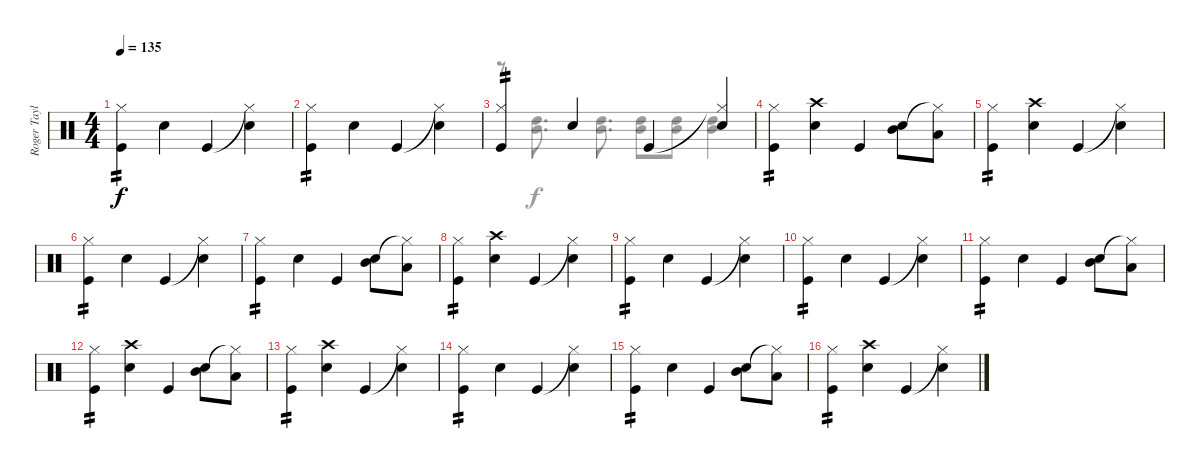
\track ("Roger Taylor" "Roger Tayl") {instrument percussion}
\staff {score}
\articulation defaults
\voice
\ts (4 4)
\tempo 135
\clef neutral
\ks c
("Hi-Hat (closed)" "Kick (hit)").4{tp 2 dy f} "Snare (hit) 2".4 "Kick (hit)".4 ("Hi-Hat (closed)"{t} "Snare (hit) 2").4 |
("Hi-Hat (closed)" "Kick (hit)").4{tp 2} "Snare (hit) 2".4 "Kick (hit)".4 ("Hi-Hat (closed)"{t} "Snare (hit) 2").4 |
("Hi-Hat (closed)" "Kick (hit)").4{tp 2} "Snare (hit) 2".4 "Kick (hit)".4 ("Hi-Hat (closed)"{t} "Snare (hit) 2").4 |
("Hi-Hat (closed)" "Kick (hit)").4{tp 2} ("Crash high (hit)" "Snare (hit) 2").4 "Kick (hit)".4 ("Mid Tom (hit)" "Snare (hit) 2").8 ("Hi-Hat (closed)"{t} "Low Tom (hit)").8 |
("Hi-Hat (closed)" "Kick (hit)").4{tp 2} ("Crash high (hit)" "Snare (hit) 2").4 "Kick (hit)".4 ("Hi-Hat (closed)"{t} "Snare (hit) 2").4 |
("Hi-Hat (closed)" "Kick (hit)").4{tp 2} "Snare (hit) 2".4 "Kick (hit)".4 ("Hi-Hat (closed)"{t} "Snare (hit) 2").4 |
("Hi-Hat (closed)" "Kick (hit)").4{tp 2} "Snare (hit) 2".4 "Kick (hit)".4 ("Mid Tom (hit)" "Snare (hit) 2").8 ("Hi-Hat (closed)"{t} "Low Tom (hit)").8 |
("Hi-Hat (closed)" "Kick (hit)").4{tp 2} ("Crash high (hit)" "Snare (hit) 2").4 "Kick (hit)".4 ("Hi-Hat (closed)"{t} "Snare (hit) 2").4 |
("Hi-Hat (closed)" "Kick (hit)").4{tp 2} "Snare (hit) 2".4 "Kick (hit)".4 ("Hi-Hat (closed)"{t} "Snare (hit) 2").4 |
("Hi-Hat (closed)" "Kick (hit)").4{tp 2} "Snare (hit) 2".4 "Kick (hit)".4 ("Hi-Hat (closed)"{t} "Snare (hit) 2").4 |
("Hi-Hat (closed)" "Kick (hit)").4{tp 2} "Snare (hit) 2".4 "Kick (hit)".4 ("Mid Tom (hit)" "Snare (hit) 2").8 ("Hi-Hat (closed)"{t} "Low Tom (hit)").8 |
("Hi-Hat (closed)" "Kick (hit)").4{tp 2} ("Crash high (hit)" "Snare (hit) 2").4 "Kick (hit)".4 ("Mid Tom (hit)" "Snare (hit) 2").8 ("Hi-Hat (closed)"{t} "Low Tom (hit)").8 |
("Hi-Hat (closed)" "Kick (hit)").4{tp 2} ("Crash high (hit)" "Snare (hit) 2").4 "Kick (hit)".4 ("Hi-Hat (closed)"{t} "Snare (hit) 2").4 |
("Hi-Hat (closed)" "Kick (hit)").4{tp 2} "Snare (hit) 2".4 "Kick (hit)".4 ("Hi-Hat (closed)"{t} "Snare (hit) 2").4 |
("Hi-Hat (closed)" "Kick (hit)").4{tp 2} "Snare (hit) 2".4 "Kick (hit)".4 ("Mid Tom (hit)" "Snare (hit) 2").8 ("Hi-Hat (closed)"{t} "Low Tom (hit)").8 |
("Hi-Hat (closed)" "Kick (hit)").4{tp 2} ("Crash high (hit)" "Snare (hit) 2").4 "Kick (hit)".4 ("Hi-Hat (closed)"{t} "Snare (hit) 2").4
\voice
\clef neutral
\ottava regular
\simile none
\ks c
|
|
r.8 ("High Tom (hit)" "Mid Tom (hit)").8{d} ("High Tom (hit)" "Mid Tom (hit)").8{d} ("High Tom (hit)" "Mid Tom (hit)").8 ("High Tom (hit)" "Mid Tom (hit)").8 ("High Tom (hit)" "Mid Tom (hit)").4 |
|
|
|
|
|
|
|
|
|
|
|
|
